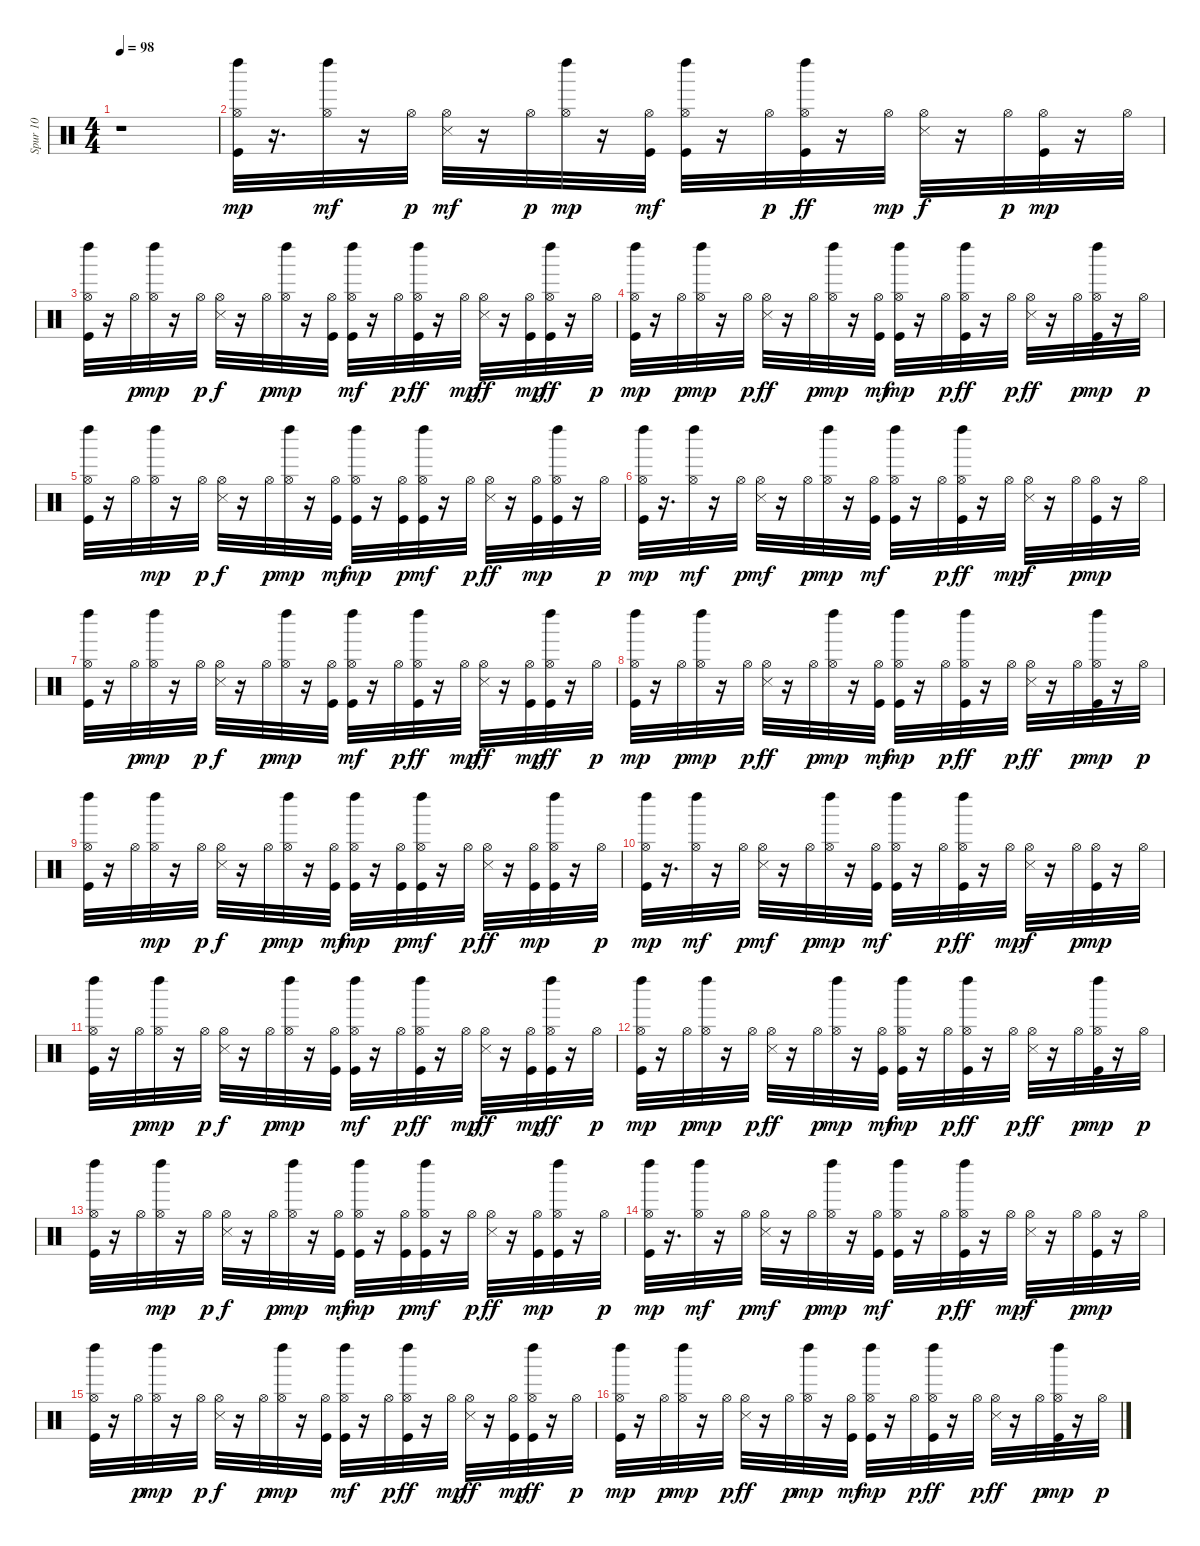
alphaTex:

\track ("Spur 10" "Spur 10") {instrument percussion}
\staff {score}
\articulation defaults
\ts (4 4)
\tempo 98
\clef neutral
\ks c
r.1{dy mp} |
("Hi-Hat (open)" "Kick (hit)" "Left Maraca (hit)").32{balance 8} r.16{d} ("Hi-Hat (open)" "Left Maraca (hit)").32{dy mf} r.16 "Hi-Hat (open)".32{dy p} ("Hi-Hat (open)" "Snare (side stick) 3").32{dy mf} r.16 "Hi-Hat (open)".32{dy p} ("Hi-Hat (open)" "Left Maraca (hit)").32{dy mp} r.16 ("Hi-Hat (open)" "Kick (hit)").32{dy mf} ("Hi-Hat (open)" "Kick (hit)" "Left Maraca (hit)").32 r.16 "Hi-Hat (open)".32{dy p} ("Hi-Hat (open)" "Kick (hit)" "Left Maraca (hit)").32{dy ff} r.16 "Hi-Hat (open)".32{dy mp} ("Hi-Hat (open)" "Snare (side stick) 3").32{dy f} r.16 "Hi-Hat (open)".32{dy p} ("Hi-Hat (open)" "Kick (hit)").32{dy mp} r.16 "Hi-Hat (open)".32 |
("Hi-Hat (open)" "Kick (hit)" "Left Maraca (hit)").32 r.16 "Hi-Hat (open)".32{dy p} ("Hi-Hat (open)" "Left Maraca (hit)").32{dy mp} r.16 "Hi-Hat (open)".32{dy p} ("Hi-Hat (open)" "Snare (side stick) 3").32{dy f} r.16 "Hi-Hat (open)".32{dy p} ("Hi-Hat (open)" "Left Maraca (hit)").32{dy mp} r.16 ("Hi-Hat (open)" "Kick (hit)").32 ("Hi-Hat (open)" "Kick (hit)" "Left Maraca (hit)").32{dy mf} r.16 "Hi-Hat (open)".32{dy p} ("Hi-Hat (open)" "Kick (hit)" "Left Maraca (hit)").32{dy ff} r.16 "Hi-Hat (open)".32{dy mp} ("Hi-Hat (open)" "Snare (side stick) 3").32{dy ff} r.16 ("Hi-Hat (open)" "Kick (hit)").32{dy mp} ("Hi-Hat (open)" "Kick (hit)" "Left Maraca (hit)").32{dy ff} r.16 "Hi-Hat (open)".32{dy p} |
("Hi-Hat (open)" "Kick (hit)" "Left Maraca (hit)").32{dy mp} r.16 "Hi-Hat (open)".32{dy p} ("Hi-Hat (open)" "Left Maraca (hit)").32{dy mp} r.16 "Hi-Hat (open)".32{dy p} ("Hi-Hat (open)" "Snare (side stick) 3").32{dy ff} r.16 "Hi-Hat (open)".32{dy p} ("Hi-Hat (open)" "Left Maraca (hit)").32{dy mp} r.16 ("Hi-Hat (open)" "Kick (hit)").32{dy mf} ("Hi-Hat (open)" "Kick (hit)" "Left Maraca (hit)").32{dy mp} r.16 "Hi-Hat (open)".32{dy p} ("Hi-Hat (open)" "Kick (hit)" "Left Maraca (hit)").32{dy ff} r.16 "Hi-Hat (open)".32{dy p} ("Hi-Hat (open)" "Snare (side stick) 3").32{dy ff} r.16 "Hi-Hat (open)".32{dy p} ("Hi-Hat (open)" "Kick (hit)" "Left Maraca (hit)").32{dy mp} r.16 "Hi-Hat (open)".32{dy p} |
("Hi-Hat (open)" "Kick (hit)" "Left Maraca (hit)").32 r.16 "Hi-Hat (open)".32 ("Hi-Hat (open)" "Left Maraca (hit)").32{dy mp} r.16 "Hi-Hat (open)".32{dy p} ("Hi-Hat (open)" "Snare (side stick) 3").32{dy f} r.16 "Hi-Hat (open)".32{dy p} ("Hi-Hat (open)" "Left Maraca (hit)").32{dy mp} r.16 ("Hi-Hat (open)" "Kick (hit)").32{dy mf} ("Hi-Hat (open)" "Kick (hit)" "Left Maraca (hit)").32{dy mp} r.16 ("Hi-Hat (open)" "Kick (hit)").32{dy p} ("Hi-Hat (open)" "Kick (hit)" "Left Maraca (hit)").32{dy mf} r.16 "Hi-Hat (open)".32{dy p} ("Hi-Hat (open)" "Snare (side stick) 3").32{dy ff} r.16 ("Hi-Hat (open)" "Kick (hit)").32{dy mp} ("Hi-Hat (open)" "Kick (hit)" "Left Maraca (hit)").32 r.16 "Hi-Hat (open)".32{dy p} |
("Hi-Hat (open)" "Kick (hit)" "Left Maraca (hit)").32{dy mp} r.16{d} ("Hi-Hat (open)" "Left Maraca (hit)").32{dy mf} r.16 "Hi-Hat (open)".32{dy p} ("Hi-Hat (open)" "Snare (side stick) 3").32{dy mf} r.16 "Hi-Hat (open)".32{dy p} ("Hi-Hat (open)" "Left Maraca (hit)").32{dy mp} r.16 ("Hi-Hat (open)" "Kick (hit)").32{dy mf} ("Hi-Hat (open)" "Kick (hit)" "Left Maraca (hit)").32 r.16 "Hi-Hat (open)".32{dy p} ("Hi-Hat (open)" "Kick (hit)" "Left Maraca (hit)").32{dy ff} r.16 "Hi-Hat (open)".32{dy mp} ("Hi-Hat (open)" "Snare (side stick) 3").32{dy f} r.16 "Hi-Hat (open)".32{dy p} ("Hi-Hat (open)" "Kick (hit)").32{dy mp} r.16 "Hi-Hat (open)".32 |
("Hi-Hat (open)" "Kick (hit)" "Left Maraca (hit)").32 r.16 "Hi-Hat (open)".32{dy p} ("Hi-Hat (open)" "Left Maraca (hit)").32{dy mp} r.16 "Hi-Hat (open)".32{dy p} ("Hi-Hat (open)" "Snare (side stick) 3").32{dy f} r.16 "Hi-Hat (open)".32{dy p} ("Hi-Hat (open)" "Left Maraca (hit)").32{dy mp} r.16 ("Hi-Hat (open)" "Kick (hit)").32 ("Hi-Hat (open)" "Kick (hit)" "Left Maraca (hit)").32{dy mf} r.16 "Hi-Hat (open)".32{dy p} ("Hi-Hat (open)" "Kick (hit)" "Left Maraca (hit)").32{dy ff} r.16 "Hi-Hat (open)".32{dy mp} ("Hi-Hat (open)" "Snare (side stick) 3").32{dy ff} r.16 ("Hi-Hat (open)" "Kick (hit)").32{dy mp} ("Hi-Hat (open)" "Kick (hit)" "Left Maraca (hit)").32{dy ff} r.16 "Hi-Hat (open)".32{dy p} |
("Hi-Hat (open)" "Kick (hit)" "Left Maraca (hit)").32{dy mp} r.16 "Hi-Hat (open)".32{dy p} ("Hi-Hat (open)" "Left Maraca (hit)").32{dy mp} r.16 "Hi-Hat (open)".32{dy p} ("Hi-Hat (open)" "Snare (side stick) 3").32{dy ff} r.16 "Hi-Hat (open)".32{dy p} ("Hi-Hat (open)" "Left Maraca (hit)").32{dy mp} r.16 ("Hi-Hat (open)" "Kick (hit)").32{dy mf} ("Hi-Hat (open)" "Kick (hit)" "Left Maraca (hit)").32{dy mp} r.16 "Hi-Hat (open)".32{dy p} ("Hi-Hat (open)" "Kick (hit)" "Left Maraca (hit)").32{dy ff} r.16 "Hi-Hat (open)".32{dy p} ("Hi-Hat (open)" "Snare (side stick) 3").32{dy ff} r.16 "Hi-Hat (open)".32{dy p} ("Hi-Hat (open)" "Kick (hit)" "Left Maraca (hit)").32{dy mp} r.16 "Hi-Hat (open)".32{dy p} |
("Hi-Hat (open)" "Kick (hit)" "Left Maraca (hit)").32 r.16 "Hi-Hat (open)".32 ("Hi-Hat (open)" "Left Maraca (hit)").32{dy mp} r.16 "Hi-Hat (open)".32{dy p} ("Hi-Hat (open)" "Snare (side stick) 3").32{dy f} r.16 "Hi-Hat (open)".32{dy p} ("Hi-Hat (open)" "Left Maraca (hit)").32{dy mp} r.16 ("Hi-Hat (open)" "Kick (hit)").32{dy mf} ("Hi-Hat (open)" "Kick (hit)" "Left Maraca (hit)").32{dy mp} r.16 ("Hi-Hat (open)" "Kick (hit)").32{dy p} ("Hi-Hat (open)" "Kick (hit)" "Left Maraca (hit)").32{dy mf} r.16 "Hi-Hat (open)".32{dy p} ("Hi-Hat (open)" "Snare (side stick) 3").32{dy ff} r.16 ("Hi-Hat (open)" "Kick (hit)").32{dy mp} ("Hi-Hat (open)" "Kick (hit)" "Left Maraca (hit)").32 r.16 "Hi-Hat (open)".32{dy p} |
("Hi-Hat (open)" "Kick (hit)" "Left Maraca (hit)").32{dy mp} r.16{d} ("Hi-Hat (open)" "Left Maraca (hit)").32{dy mf} r.16 "Hi-Hat (open)".32{dy p} ("Hi-Hat (open)" "Snare (side stick) 3").32{dy mf} r.16 "Hi-Hat (open)".32{dy p} ("Hi-Hat (open)" "Left Maraca (hit)").32{dy mp} r.16 ("Hi-Hat (open)" "Kick (hit)").32{dy mf} ("Hi-Hat (open)" "Kick (hit)" "Left Maraca (hit)").32 r.16 "Hi-Hat (open)".32{dy p} ("Hi-Hat (open)" "Kick (hit)" "Left Maraca (hit)").32{dy ff} r.16 "Hi-Hat (open)".32{dy mp} ("Hi-Hat (open)" "Snare (side stick) 3").32{dy f} r.16 "Hi-Hat (open)".32{dy p} ("Hi-Hat (open)" "Kick (hit)").32{dy mp} r.16 "Hi-Hat (open)".32 |
("Hi-Hat (open)" "Kick (hit)" "Left Maraca (hit)").32 r.16 "Hi-Hat (open)".32{dy p} ("Hi-Hat (open)" "Left Maraca (hit)").32{dy mp} r.16 "Hi-Hat (open)".32{dy p} ("Hi-Hat (open)" "Snare (side stick) 3").32{dy f} r.16 "Hi-Hat (open)".32{dy p} ("Hi-Hat (open)" "Left Maraca (hit)").32{dy mp} r.16 ("Hi-Hat (open)" "Kick (hit)").32 ("Hi-Hat (open)" "Kick (hit)" "Left Maraca (hit)").32{dy mf} r.16 "Hi-Hat (open)".32{dy p} ("Hi-Hat (open)" "Kick (hit)" "Left Maraca (hit)").32{dy ff} r.16 "Hi-Hat (open)".32{dy mp} ("Hi-Hat (open)" "Snare (side stick) 3").32{dy ff} r.16 ("Hi-Hat (open)" "Kick (hit)").32{dy mp} ("Hi-Hat (open)" "Kick (hit)" "Left Maraca (hit)").32{dy ff} r.16 "Hi-Hat (open)".32{dy p} |
("Hi-Hat (open)" "Kick (hit)" "Left Maraca (hit)").32{dy mp} r.16 "Hi-Hat (open)".32{dy p} ("Hi-Hat (open)" "Left Maraca (hit)").32{dy mp} r.16 "Hi-Hat (open)".32{dy p} ("Hi-Hat (open)" "Snare (side stick) 3").32{dy ff} r.16 "Hi-Hat (open)".32{dy p} ("Hi-Hat (open)" "Left Maraca (hit)").32{dy mp} r.16 ("Hi-Hat (open)" "Kick (hit)").32{dy mf} ("Hi-Hat (open)" "Kick (hit)" "Left Maraca (hit)").32{dy mp} r.16 "Hi-Hat (open)".32{dy p} ("Hi-Hat (open)" "Kick (hit)" "Left Maraca (hit)").32{dy ff} r.16 "Hi-Hat (open)".32{dy p} ("Hi-Hat (open)" "Snare (side stick) 3").32{dy ff} r.16 "Hi-Hat (open)".32{dy p} ("Hi-Hat (open)" "Kick (hit)" "Left Maraca (hit)").32{dy mp} r.16 "Hi-Hat (open)".32{dy p} |
("Hi-Hat (open)" "Kick (hit)" "Left Maraca (hit)").32 r.16 "Hi-Hat (open)".32 ("Hi-Hat (open)" "Left Maraca (hit)").32{dy mp} r.16 "Hi-Hat (open)".32{dy p} ("Hi-Hat (open)" "Snare (side stick) 3").32{dy f} r.16 "Hi-Hat (open)".32{dy p} ("Hi-Hat (open)" "Left Maraca (hit)").32{dy mp} r.16 ("Hi-Hat (open)" "Kick (hit)").32{dy mf} ("Hi-Hat (open)" "Kick (hit)" "Left Maraca (hit)").32{dy mp} r.16 ("Hi-Hat (open)" "Kick (hit)").32{dy p} ("Hi-Hat (open)" "Kick (hit)" "Left Maraca (hit)").32{dy mf} r.16 "Hi-Hat (open)".32{dy p} ("Hi-Hat (open)" "Snare (side stick) 3").32{dy ff} r.16 ("Hi-Hat (open)" "Kick (hit)").32{dy mp} ("Hi-Hat (open)" "Kick (hit)" "Left Maraca (hit)").32 r.16 "Hi-Hat (open)".32{dy p} |
("Hi-Hat (open)" "Kick (hit)" "Left Maraca (hit)").32{dy mp} r.16{d} ("Hi-Hat (open)" "Left Maraca (hit)").32{dy mf} r.16 "Hi-Hat (open)".32{dy p} ("Hi-Hat (open)" "Snare (side stick) 3").32{dy mf} r.16 "Hi-Hat (open)".32{dy p} ("Hi-Hat (open)" "Left Maraca (hit)").32{dy mp} r.16 ("Hi-Hat (open)" "Kick (hit)").32{dy mf} ("Hi-Hat (open)" "Kick (hit)" "Left Maraca (hit)").32 r.16 "Hi-Hat (open)".32{dy p} ("Hi-Hat (open)" "Kick (hit)" "Left Maraca (hit)").32{dy ff} r.16 "Hi-Hat (open)".32{dy mp} ("Hi-Hat (open)" "Snare (side stick) 3").32{dy f} r.16 "Hi-Hat (open)".32{dy p} ("Hi-Hat (open)" "Kick (hit)").32{dy mp} r.16 "Hi-Hat (open)".32 |
("Hi-Hat (open)" "Kick (hit)" "Left Maraca (hit)").32 r.16 "Hi-Hat (open)".32{dy p} ("Hi-Hat (open)" "Left Maraca (hit)").32{dy mp} r.16 "Hi-Hat (open)".32{dy p} ("Hi-Hat (open)" "Snare (side stick) 3").32{dy f} r.16 "Hi-Hat (open)".32{dy p} ("Hi-Hat (open)" "Left Maraca (hit)").32{dy mp} r.16 ("Hi-Hat (open)" "Kick (hit)").32 ("Hi-Hat (open)" "Kick (hit)" "Left Maraca (hit)").32{dy mf} r.16 "Hi-Hat (open)".32{dy p} ("Hi-Hat (open)" "Kick (hit)" "Left Maraca (hit)").32{dy ff} r.16 "Hi-Hat (open)".32{dy mp} ("Hi-Hat (open)" "Snare (side stick) 3").32{dy ff} r.16 ("Hi-Hat (open)" "Kick (hit)").32{dy mp} ("Hi-Hat (open)" "Kick (hit)" "Left Maraca (hit)").32{dy ff} r.16 "Hi-Hat (open)".32{dy p} |
("Hi-Hat (open)" "Kick (hit)" "Left Maraca (hit)").32{dy mp} r.16 "Hi-Hat (open)".32{dy p} ("Hi-Hat (open)" "Left Maraca (hit)").32{dy mp} r.16 "Hi-Hat (open)".32{dy p} ("Hi-Hat (open)" "Snare (side stick) 3").32{dy ff} r.16 "Hi-Hat (open)".32{dy p} ("Hi-Hat (open)" "Left Maraca (hit)").32{dy mp} r.16 ("Hi-Hat (open)" "Kick (hit)").32{dy mf} ("Hi-Hat (open)" "Kick (hit)" "Left Maraca (hit)").32{dy mp} r.16 "Hi-Hat (open)".32{dy p} ("Hi-Hat (open)" "Kick (hit)" "Left Maraca (hit)").32{dy ff} r.16 "Hi-Hat (open)".32{dy p} ("Hi-Hat (open)" "Snare (side stick) 3").32{dy ff} r.16 "Hi-Hat (open)".32{dy p} ("Hi-Hat (open)" "Kick (hit)" "Left Maraca (hit)").32{dy mp} r.16 "Hi-Hat (open)".32{dy p}
